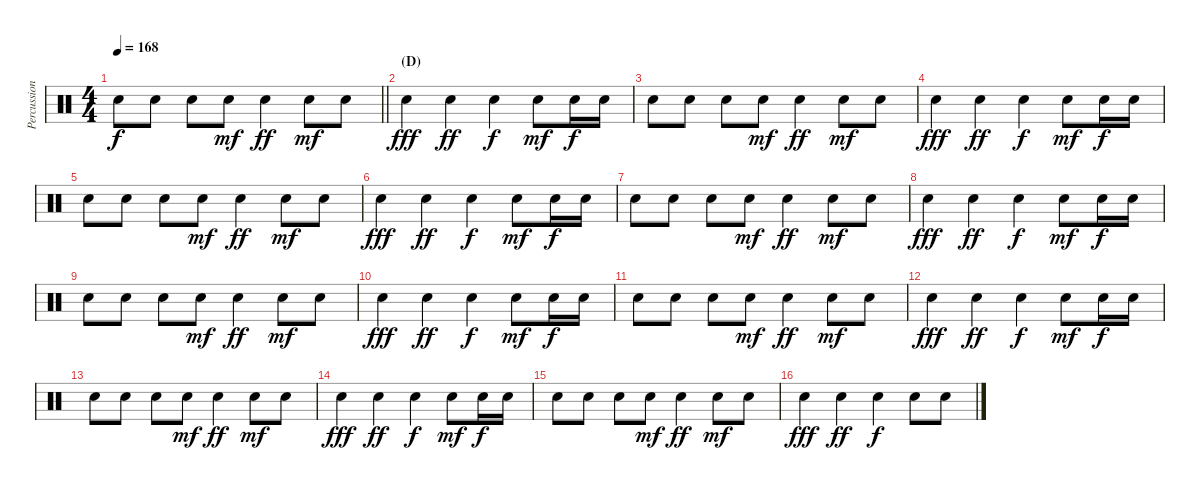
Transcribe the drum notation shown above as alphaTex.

\track ("Percussion" "Percussion") {instrument percussion}
\staff {score}
\articulation defaults
\ts (4 4)
\tempo 168
\clef neutral
\barLineRight lightlight
\ks c "Snare (hit) 2".8{dy f} "Snare (hit) 2".8 "Snare (hit) 2".8 "Snare (hit) 2".8{dy mf} "Snare (hit) 2".4{dy ff} "Snare (hit) 2".8{dy mf} "Snare (hit) 2".8
|
\section ("" "(D)")
"Snare (hit) 2".4{dy fff} "Snare (hit) 2".4{dy ff} "Snare (hit) 2".4{dy f} "Snare (hit) 2".8{dy mf} "Snare (hit) 2".16{dy f} "Snare (hit) 2".16 |
"Snare (hit) 2".8 "Snare (hit) 2".8 "Snare (hit) 2".8 "Snare (hit) 2".8{dy mf} "Snare (hit) 2".4{dy ff} "Snare (hit) 2".8{dy mf} "Snare (hit) 2".8 |
"Snare (hit) 2".4{dy fff} "Snare (hit) 2".4{dy ff} "Snare (hit) 2".4{dy f} "Snare (hit) 2".8{dy mf} "Snare (hit) 2".16{dy f} "Snare (hit) 2".16 |
"Snare (hit) 2".8 "Snare (hit) 2".8 "Snare (hit) 2".8 "Snare (hit) 2".8{dy mf} "Snare (hit) 2".4{dy ff} "Snare (hit) 2".8{dy mf} "Snare (hit) 2".8 |
"Snare (hit) 2".4{dy fff} "Snare (hit) 2".4{dy ff} "Snare (hit) 2".4{dy f} "Snare (hit) 2".8{dy mf} "Snare (hit) 2".16{dy f} "Snare (hit) 2".16 |
"Snare (hit) 2".8 "Snare (hit) 2".8 "Snare (hit) 2".8 "Snare (hit) 2".8{dy mf} "Snare (hit) 2".4{dy ff} "Snare (hit) 2".8{dy mf} "Snare (hit) 2".8 |
"Snare (hit) 2".4{dy fff} "Snare (hit) 2".4{dy ff} "Snare (hit) 2".4{dy f} "Snare (hit) 2".8{dy mf} "Snare (hit) 2".16{dy f} "Snare (hit) 2".16 |
"Snare (hit) 2".8 "Snare (hit) 2".8 "Snare (hit) 2".8 "Snare (hit) 2".8{dy mf} "Snare (hit) 2".4{dy ff} "Snare (hit) 2".8{dy mf} "Snare (hit) 2".8 |
"Snare (hit) 2".4{dy fff} "Snare (hit) 2".4{dy ff} "Snare (hit) 2".4{dy f} "Snare (hit) 2".8{dy mf} "Snare (hit) 2".16{dy f} "Snare (hit) 2".16 |
"Snare (hit) 2".8 "Snare (hit) 2".8 "Snare (hit) 2".8 "Snare (hit) 2".8{dy mf} "Snare (hit) 2".4{dy ff} "Snare (hit) 2".8{dy mf} "Snare (hit) 2".8 |
"Snare (hit) 2".4{dy fff} "Snare (hit) 2".4{dy ff} "Snare (hit) 2".4{dy f} "Snare (hit) 2".8{dy mf} "Snare (hit) 2".16{dy f} "Snare (hit) 2".16 |
"Snare (hit) 2".8 "Snare (hit) 2".8 "Snare (hit) 2".8 "Snare (hit) 2".8{dy mf} "Snare (hit) 2".4{dy ff} "Snare (hit) 2".8{dy mf} "Snare (hit) 2".8 |
"Snare (hit) 2".4{dy fff} "Snare (hit) 2".4{dy ff} "Snare (hit) 2".4{dy f} "Snare (hit) 2".8{dy mf} "Snare (hit) 2".16{dy f} "Snare (hit) 2".16 |
"Snare (hit) 2".8 "Snare (hit) 2".8 "Snare (hit) 2".8 "Snare (hit) 2".8{dy mf} "Snare (hit) 2".4{dy ff} "Snare (hit) 2".8{dy mf} "Snare (hit) 2".8 |
"Snare (hit) 2".4{dy fff} "Snare (hit) 2".4{dy ff} "Snare (hit) 2".4{dy f} "Snare (hit) 2".8 "Snare (hit) 2".8
